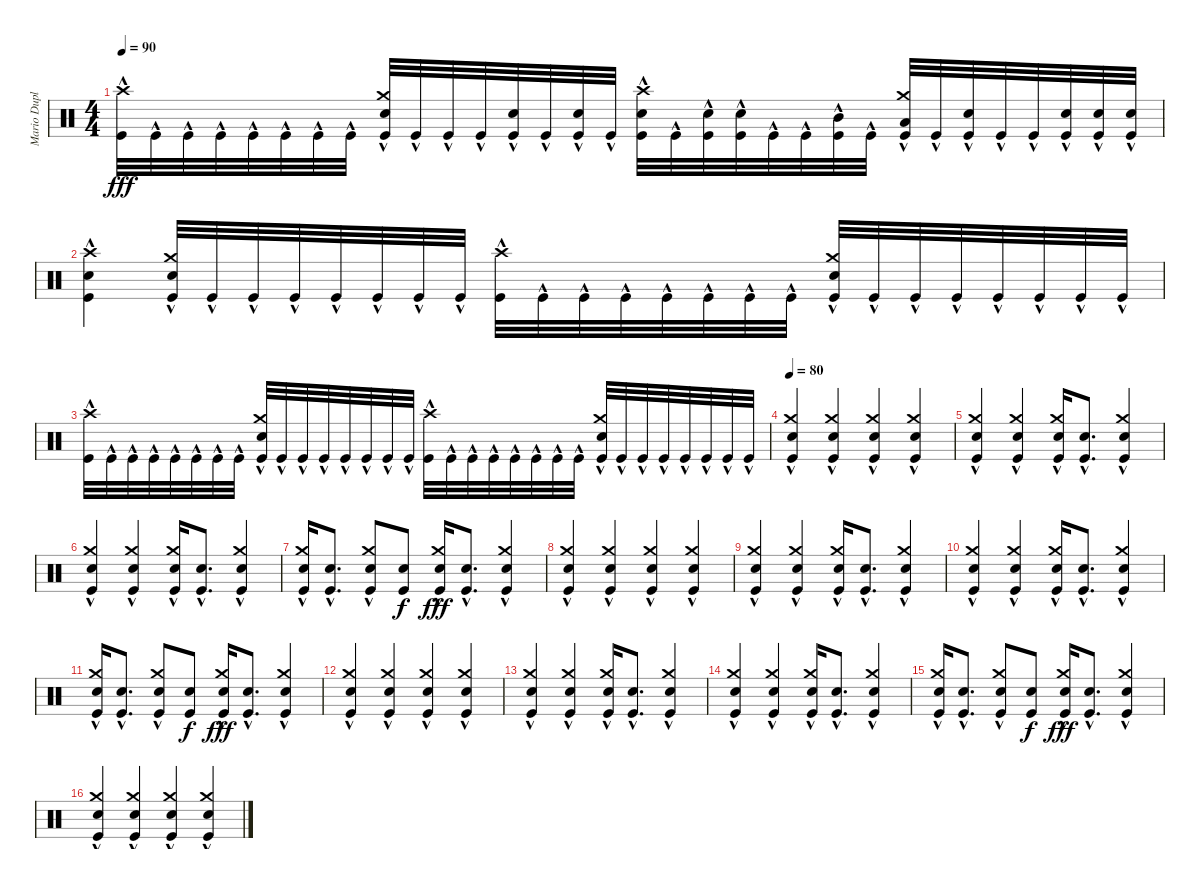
\track ("Mario Duplantier" "Mario Dupl") {instrument percussion}
\staff {score}
\articulation defaults
\ts (4 4)
\tempo 90
\clef neutral
\ks c
("Crash high (hit)" "Kick (hit)"{hac}).32{dy fff} "Kick (hit)"{hac}.32 "Kick (hit)"{hac}.32 "Kick (hit)"{hac}.32 "Kick (hit)"{hac}.32 "Kick (hit)"{hac}.32 "Kick (hit)"{hac}.32 "Kick (hit)"{hac}.32 ("Crash medium (hit)" "Electric Snare (hit)" "Kick (hit)"{hac}).32 "Kick (hit)"{hac}.32 "Kick (hit)"{hac}.32 "Kick (hit)"{hac}.32 ("Electric Snare (hit)" "Kick (hit)"{hac}).32 "Kick (hit)"{hac}.32 ("Electric Snare (hit)" "Kick (hit)"{hac}).32 "Kick (hit)"{hac}.32 ("Crash high (hit)" "Electric Snare (hit)" "Kick (hit)"{hac}).32 "Kick (hit)"{hac}.32 ("Electric Snare (hit)" "Kick (hit)"{hac}).32 ("Electric Snare (hit)" "Kick (hit)"{hac}).32 "Kick (hit)"{hac}.32 "Kick (hit)"{hac}.32 ("Mid Tom (hit)" "Kick (hit)"{hac}).32 "Kick (hit)"{hac}.32 ("Crash medium (hit)" "Low Tom (hit)" "Kick (hit)"{hac}).32 "Kick (hit)"{hac}.32 ("Electric Snare (hit)" "Kick (hit)"{hac}).32 "Kick (hit)"{hac}.32 "Kick (hit)"{hac}.32 ("Electric Snare (hit)" "Kick (hit)"{hac}).32 ("Electric Snare (hit)" "Kick (hit)"{hac}).32 ("Electric Snare (hit)" "Kick (hit)"{hac}).32 |
("Crash high (hit)" "Electric Snare (hit)" "Kick (hit)"{hac}).4 ("Crash medium (hit)" "Electric Snare (hit)" "Kick (hit)"{hac}).32 "Kick (hit)"{hac}.32 "Kick (hit)"{hac}.32 "Kick (hit)"{hac}.32 "Kick (hit)"{hac}.32 "Kick (hit)"{hac}.32 "Kick (hit)"{hac}.32 "Kick (hit)"{hac}.32 ("Crash high (hit)" "Kick (hit)"{hac}).32 "Kick (hit)"{hac}.32 "Kick (hit)"{hac}.32 "Kick (hit)"{hac}.32 "Kick (hit)"{hac}.32 "Kick (hit)"{hac}.32 "Kick (hit)"{hac}.32 "Kick (hit)"{hac}.32 ("Crash medium (hit)" "Electric Snare (hit)" "Kick (hit)"{hac}).32 "Kick (hit)"{hac}.32 "Kick (hit)"{hac}.32 "Kick (hit)"{hac}.32 "Kick (hit)"{hac}.32 "Kick (hit)"{hac}.32 "Kick (hit)"{hac}.32 "Kick (hit)"{hac}.32 |
("Crash high (hit)" "Kick (hit)"{hac}).32 "Kick (hit)"{hac}.32 "Kick (hit)"{hac}.32 "Kick (hit)"{hac}.32 "Kick (hit)"{hac}.32 "Kick (hit)"{hac}.32 "Kick (hit)"{hac}.32 "Kick (hit)"{hac}.32 ("Crash medium (hit)" "Electric Snare (hit)" "Kick (hit)"{hac}).32 "Kick (hit)"{hac}.32 "Kick (hit)"{hac}.32 "Kick (hit)"{hac}.32 "Kick (hit)"{hac}.32 "Kick (hit)"{hac}.32 "Kick (hit)"{hac}.32 "Kick (hit)"{hac}.32 ("Crash high (hit)" "Kick (hit)"{hac}).32 "Kick (hit)"{hac}.32 "Kick (hit)"{hac}.32 "Kick (hit)"{hac}.32 "Kick (hit)"{hac}.32 "Kick (hit)"{hac}.32 "Kick (hit)"{hac}.32 "Kick (hit)"{hac}.32 ("Crash medium (hit)" "Electric Snare (hit)" "Kick (hit)"{hac}).32 "Kick (hit)"{hac}.32 "Kick (hit)"{hac}.32 "Kick (hit)"{hac}.32 "Kick (hit)"{hac}.32 "Kick (hit)"{hac}.32 "Kick (hit)"{hac}.32 "Kick (hit)"{hac}.32 |
\tempo 80
("Crash medium (hit)" "Electric Snare (hit)" "Kick (hit)"{hac}).4 ("Crash medium (hit)" "Electric Snare (hit)" "Kick (hit)"{hac}).4 ("Crash medium (hit)" "Electric Snare (hit)" "Kick (hit)"{hac}).4 ("Crash medium (hit)" "Electric Snare (hit)" "Kick (hit)"{hac}).4 |
("Crash medium (hit)" "Electric Snare (hit)" "Kick (hit)"{hac}).4 ("Crash medium (hit)" "Electric Snare (hit)" "Kick (hit)"{hac}).4 ("Crash medium (hit)" "Electric Snare (hit)" "Kick (hit)"{hac}).16 ("Electric Snare (hit)" "Kick (hit)"{hac}).8{d} ("Crash medium (hit)" "Electric Snare (hit)" "Kick (hit)"{hac}).4 |
("Crash medium (hit)" "Electric Snare (hit)" "Kick (hit)"{hac}).4 ("Crash medium (hit)" "Electric Snare (hit)" "Kick (hit)"{hac}).4 ("Crash medium (hit)" "Electric Snare (hit)" "Kick (hit)"{hac}).16 ("Electric Snare (hit)" "Kick (hit)"{hac}).8{d} ("Crash medium (hit)" "Electric Snare (hit)" "Kick (hit)"{hac}).4 |
("Crash medium (hit)" "Electric Snare (hit)" "Kick (hit)"{hac}).16 ("Electric Snare (hit)" "Kick (hit)"{hac}).8{d} ("Crash medium (hit)" "Electric Snare (hit)" "Kick (hit)"{hac}).8 ("Electric Snare (hit)" "Kick (hit)").8{dy f} ("Crash medium (hit)" "Electric Snare (hit)" "Kick (hit)"{hac}).16{dy fff} ("Electric Snare (hit)" "Kick (hit)"{hac}).8{d} ("Crash medium (hit)" "Electric Snare (hit)" "Kick (hit)"{hac}).4 |
("Crash medium (hit)" "Electric Snare (hit)" "Kick (hit)"{hac}).4 ("Crash medium (hit)" "Electric Snare (hit)" "Kick (hit)"{hac}).4 ("Crash medium (hit)" "Electric Snare (hit)" "Kick (hit)"{hac}).4 ("Crash medium (hit)" "Electric Snare (hit)" "Kick (hit)"{hac}).4 |
("Crash medium (hit)" "Electric Snare (hit)" "Kick (hit)"{hac}).4 ("Crash medium (hit)" "Electric Snare (hit)" "Kick (hit)"{hac}).4 ("Crash medium (hit)" "Electric Snare (hit)" "Kick (hit)"{hac}).16 ("Electric Snare (hit)" "Kick (hit)"{hac}).8{d} ("Crash medium (hit)" "Electric Snare (hit)" "Kick (hit)"{hac}).4 |
("Crash medium (hit)" "Electric Snare (hit)" "Kick (hit)"{hac}).4 ("Crash medium (hit)" "Electric Snare (hit)" "Kick (hit)"{hac}).4 ("Crash medium (hit)" "Electric Snare (hit)" "Kick (hit)"{hac}).16 ("Electric Snare (hit)" "Kick (hit)"{hac}).8{d} ("Crash medium (hit)" "Electric Snare (hit)" "Kick (hit)"{hac}).4 |
("Crash medium (hit)" "Electric Snare (hit)" "Kick (hit)"{hac}).16 ("Electric Snare (hit)" "Kick (hit)"{hac}).8{d} ("Crash medium (hit)" "Electric Snare (hit)" "Kick (hit)"{hac}).8 ("Electric Snare (hit)" "Kick (hit)").8{dy f} ("Crash medium (hit)" "Electric Snare (hit)" "Kick (hit)"{hac}).16{dy fff} ("Electric Snare (hit)" "Kick (hit)"{hac}).8{d} ("Crash medium (hit)" "Electric Snare (hit)" "Kick (hit)"{hac}).4 |
("Crash medium (hit)" "Electric Snare (hit)" "Kick (hit)"{hac}).4 ("Crash medium (hit)" "Electric Snare (hit)" "Kick (hit)"{hac}).4 ("Crash medium (hit)" "Electric Snare (hit)" "Kick (hit)"{hac}).4 ("Crash medium (hit)" "Electric Snare (hit)" "Kick (hit)"{hac}).4 |
("Crash medium (hit)" "Electric Snare (hit)" "Kick (hit)"{hac}).4 ("Crash medium (hit)" "Electric Snare (hit)" "Kick (hit)"{hac}).4 ("Crash medium (hit)" "Electric Snare (hit)" "Kick (hit)"{hac}).16 ("Electric Snare (hit)" "Kick (hit)"{hac}).8{d} ("Crash medium (hit)" "Electric Snare (hit)" "Kick (hit)"{hac}).4 |
("Crash medium (hit)" "Electric Snare (hit)" "Kick (hit)"{hac}).4 ("Crash medium (hit)" "Electric Snare (hit)" "Kick (hit)"{hac}).4 ("Crash medium (hit)" "Electric Snare (hit)" "Kick (hit)"{hac}).16 ("Electric Snare (hit)" "Kick (hit)"{hac}).8{d} ("Crash medium (hit)" "Electric Snare (hit)" "Kick (hit)"{hac}).4 |
("Crash medium (hit)" "Electric Snare (hit)" "Kick (hit)"{hac}).16 ("Electric Snare (hit)" "Kick (hit)"{hac}).8{d} ("Crash medium (hit)" "Electric Snare (hit)" "Kick (hit)"{hac}).8 ("Electric Snare (hit)" "Kick (hit)").8{dy f} ("Crash medium (hit)" "Electric Snare (hit)" "Kick (hit)"{hac}).16{dy fff} ("Electric Snare (hit)" "Kick (hit)"{hac}).8{d} ("Crash medium (hit)" "Electric Snare (hit)" "Kick (hit)"{hac}).4 |
("Crash medium (hit)" "Electric Snare (hit)" "Kick (hit)"{hac}).4 ("Crash medium (hit)" "Electric Snare (hit)" "Kick (hit)"{hac}).4 ("Crash medium (hit)" "Electric Snare (hit)" "Kick (hit)"{hac}).4 ("Crash medium (hit)" "Electric Snare (hit)" "Kick (hit)"{hac}).4
